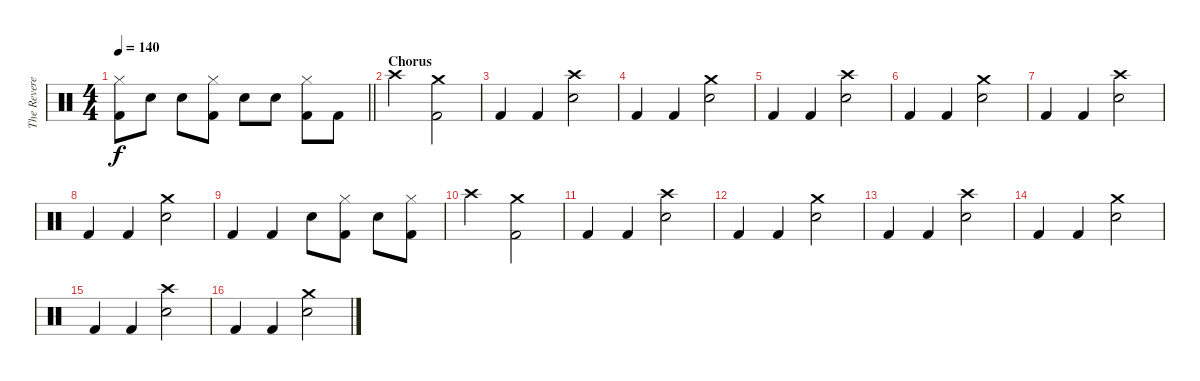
\track ("The Reverend" "The Revere") {instrument percussion}
\staff {score}
\articulation defaults
\ts (4 4)
\tempo 140
\clef neutral
\barLineRight lightlight
\ks c
("Hi-Hat (closed)" "Kick (hit) 2").8{dy f} "Snare (hit) 2".8 "Snare (hit) 2".8 ("Hi-Hat (closed)" "Kick (hit) 2").8 "Snare (hit) 2".8 "Snare (hit) 2".8 ("Hi-Hat (closed)" "Kick (hit) 2").8 "Kick (hit) 2".8 |
\section ("" "Chorus")
"Crash high (hit)".2 ("Crash medium (hit)" "Kick (hit) 2").2 |
"Kick (hit) 2".4 "Kick (hit) 2".4 ("Crash high (hit)" "Snare (hit) 2").2 |
"Kick (hit) 2".4 "Kick (hit) 2".4 ("Crash medium (hit)" "Snare (hit) 2").2 |
"Kick (hit) 2".4 "Kick (hit) 2".4 ("Crash high (hit)" "Snare (hit) 2").2 |
"Kick (hit) 2".4 "Kick (hit) 2".4 ("Crash medium (hit)" "Snare (hit) 2").2 |
"Kick (hit) 2".4 "Kick (hit) 2".4 ("Crash high (hit)" "Snare (hit) 2").2 |
"Kick (hit) 2".4 "Kick (hit) 2".4 ("Crash medium (hit)" "Snare (hit) 2").2 |
"Kick (hit) 2".4 "Kick (hit) 2".4 "Snare (hit) 2".8 ("Hi-Hat (closed)" "Kick (hit) 2").8 "Snare (hit) 2".8 ("Hi-Hat (closed)" "Kick (hit) 2").8 |
"Crash high (hit)".2 ("Crash medium (hit)" "Kick (hit) 2").2 |
"Kick (hit) 2".4 "Kick (hit) 2".4 ("Crash high (hit)" "Snare (hit) 2").2 |
"Kick (hit) 2".4 "Kick (hit) 2".4 ("Crash medium (hit)" "Snare (hit) 2").2 |
"Kick (hit) 2".4 "Kick (hit) 2".4 ("Crash high (hit)" "Snare (hit) 2").2 |
"Kick (hit) 2".4 "Kick (hit) 2".4 ("Crash medium (hit)" "Snare (hit) 2").2 |
"Kick (hit) 2".4 "Kick (hit) 2".4 ("Crash high (hit)" "Snare (hit) 2").2 |
"Kick (hit) 2".4 "Kick (hit) 2".4 ("Crash medium (hit)" "Snare (hit) 2").2
